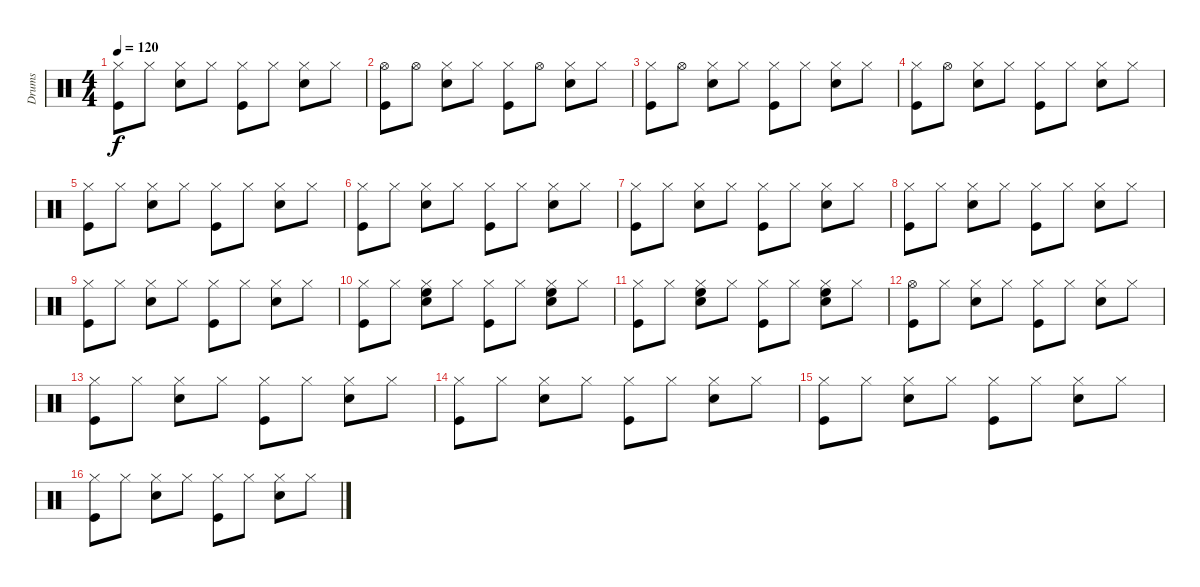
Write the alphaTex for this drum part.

\track ("Drums" "Drums") {instrument percussion}
\staff {score}
\articulation defaults
\ts (4 4)
\tempo 120
\clef neutral
\ks c
("Hi-Hat (closed)" "Kick (hit)").8{dy f} "Hi-Hat (closed)".8 ("Hi-Hat (closed)" "Snare (hit) 2").8 "Hi-Hat (closed)".8 ("Hi-Hat (closed)" "Kick (hit)").8 "Hi-Hat (closed)".8 ("Hi-Hat (closed)" "Snare (hit) 2").8 "Hi-Hat (closed)".8 |
("Hi-Hat (open)" "Kick (hit)").8 "Hi-Hat (open)".8 ("Hi-Hat (closed)" "Snare (hit) 2").8 "Hi-Hat (closed)".8 ("Hi-Hat (closed)" "Kick (hit)").8 "Hi-Hat (open)".8 ("Hi-Hat (closed)" "Snare (hit) 2").8 "Hi-Hat (closed)".8 |
("Hi-Hat (closed)" "Kick (hit)").8 "Hi-Hat (open)".8 ("Hi-Hat (closed)" "Snare (hit) 2").8 "Hi-Hat (closed)".8 ("Hi-Hat (closed)" "Kick (hit)").8 "Hi-Hat (closed)".8 ("Hi-Hat (closed)" "Snare (hit) 2").8 "Hi-Hat (closed)".8 |
("Hi-Hat (closed)" "Kick (hit)").8 "Hi-Hat (open)".8 ("Hi-Hat (closed)" "Snare (hit) 2").8 "Hi-Hat (closed)".8 ("Hi-Hat (closed)" "Kick (hit)").8 "Hi-Hat (closed)".8 ("Hi-Hat (closed)" "Snare (hit) 2").8 "Hi-Hat (closed)".8 |
("Hi-Hat (closed)" "Kick (hit)").8 "Hi-Hat (closed)".8 ("Hi-Hat (closed)" "Snare (hit) 2").8 "Hi-Hat (closed)".8 ("Hi-Hat (closed)" "Kick (hit)").8 "Hi-Hat (closed)".8 ("Hi-Hat (closed)" "Snare (hit) 2").8 "Hi-Hat (closed)".8 |
("Hi-Hat (closed)" "Kick (hit)").8 "Hi-Hat (closed)".8 ("Hi-Hat (closed)" "Snare (hit) 2").8 "Hi-Hat (closed)".8 ("Hi-Hat (closed)" "Kick (hit)").8 "Hi-Hat (closed)".8 ("Hi-Hat (closed)" "Snare (hit) 2").8 "Hi-Hat (closed)".8 |
("Hi-Hat (closed)" "Kick (hit)").8 "Hi-Hat (closed)".8 ("Hi-Hat (closed)" "Snare (hit) 2").8 "Hi-Hat (closed)".8 ("Hi-Hat (closed)" "Kick (hit)").8 "Hi-Hat (closed)".8 ("Hi-Hat (closed)" "Snare (hit) 2").8 "Hi-Hat (closed)".8 |
("Hi-Hat (closed)" "Kick (hit)").8 "Hi-Hat (closed)".8 ("Hi-Hat (closed)" "Snare (hit) 2").8 "Hi-Hat (closed)".8 ("Hi-Hat (closed)" "Kick (hit)").8 "Hi-Hat (closed)".8 ("Hi-Hat (closed)" "Snare (hit) 2").8 "Hi-Hat (closed)".8 |
("Hi-Hat (closed)" "Kick (hit)").8 "Hi-Hat (closed)".8 ("Hi-Hat (closed)" "Snare (hit) 2").8 "Hi-Hat (closed)".8 ("Hi-Hat (closed)" "Kick (hit)").8 "Hi-Hat (closed)".8 ("Hi-Hat (closed)" "Snare (hit) 2").8 "Hi-Hat (closed)".8 |
("Hi-Hat (closed)" "Kick (hit)").8 "Hi-Hat (closed)".8 ("Hi-Hat (closed)" "High Floor Tom (hit)" "Snare (hit) 2").8 "Hi-Hat (closed)".8 ("Hi-Hat (closed)" "Kick (hit)").8 "Hi-Hat (closed)".8 ("Hi-Hat (closed)" "High Floor Tom (hit)" "Snare (hit) 2").8 "Hi-Hat (closed)".8 |
("Hi-Hat (closed)" "Kick (hit)").8 "Hi-Hat (closed)".8 ("Hi-Hat (closed)" "High Floor Tom (hit)" "Snare (hit) 2").8 "Hi-Hat (closed)".8 ("Hi-Hat (closed)" "Kick (hit)").8 "Hi-Hat (closed)".8 ("Hi-Hat (closed)" "High Floor Tom (hit)" "Snare (hit) 2").8 "Hi-Hat (closed)".8 |
("Hi-Hat (open)" "Kick (hit)").8 "Hi-Hat (closed)".8 ("Hi-Hat (closed)" "Snare (hit) 2").8 "Hi-Hat (closed)".8 ("Hi-Hat (closed)" "Kick (hit)").8 "Hi-Hat (closed)".8 ("Hi-Hat (closed)" "Snare (hit) 2").8 "Hi-Hat (closed)".8 |
("Hi-Hat (closed)" "Kick (hit)").8 "Hi-Hat (closed)".8 ("Hi-Hat (closed)" "Snare (hit) 2").8 "Hi-Hat (closed)".8 ("Hi-Hat (closed)" "Kick (hit)").8 "Hi-Hat (closed)".8 ("Hi-Hat (closed)" "Snare (hit) 2").8 "Hi-Hat (closed)".8 |
("Hi-Hat (closed)" "Kick (hit)").8 "Hi-Hat (closed)".8 ("Hi-Hat (closed)" "Snare (hit) 2").8 "Hi-Hat (closed)".8 ("Hi-Hat (closed)" "Kick (hit)").8 "Hi-Hat (closed)".8 ("Hi-Hat (closed)" "Snare (hit) 2").8 "Hi-Hat (closed)".8 |
("Hi-Hat (closed)" "Kick (hit)").8 "Hi-Hat (closed)".8 ("Hi-Hat (closed)" "Snare (hit) 2").8 "Hi-Hat (closed)".8 ("Hi-Hat (closed)" "Kick (hit)").8 "Hi-Hat (closed)".8 ("Hi-Hat (closed)" "Snare (hit) 2").8 "Hi-Hat (closed)".8 |
("Hi-Hat (closed)" "Kick (hit)").8 "Hi-Hat (closed)".8 ("Hi-Hat (closed)" "Snare (hit) 2").8 "Hi-Hat (closed)".8 ("Hi-Hat (closed)" "Kick (hit)").8 "Hi-Hat (closed)".8 ("Hi-Hat (closed)" "Snare (hit) 2").8 "Hi-Hat (closed)".8
